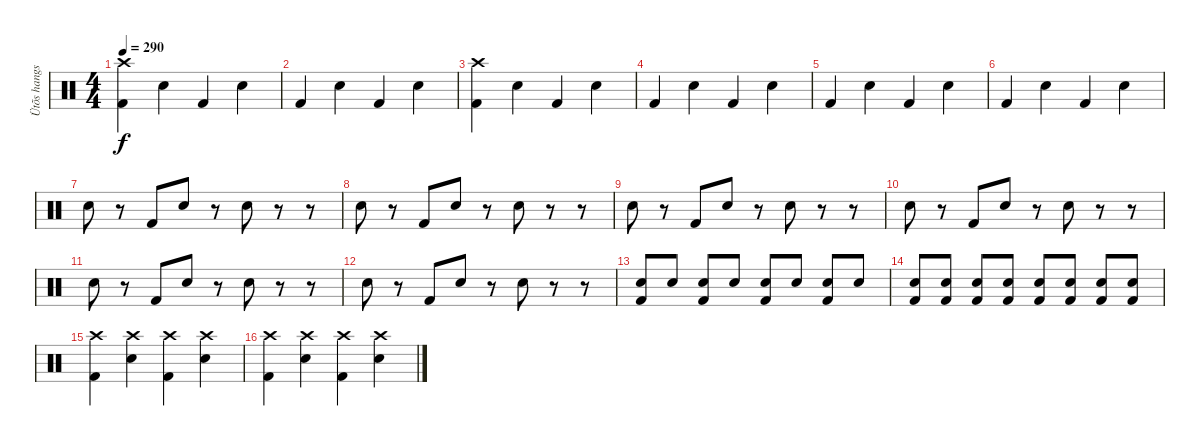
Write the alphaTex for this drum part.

\track ("Ütõs hangszer" "Ütõs hangs") {instrument percussion}
\staff {score}
\articulation defaults
\ts (4 4)
\tempo 290
\clef neutral
\ks c
("Crash high (hit)" "Kick (hit) 2").4{dy f} "Snare (hit) 2".4 "Kick (hit) 2".4 "Snare (hit) 2".4 |
"Kick (hit) 2".4 "Snare (hit) 2".4 "Kick (hit) 2".4 "Snare (hit) 2".4 |
("Crash high (hit)" "Kick (hit) 2").4 "Snare (hit) 2".4 "Kick (hit) 2".4 "Snare (hit) 2".4 |
"Kick (hit) 2".4 "Snare (hit) 2".4 "Kick (hit) 2".4 "Snare (hit) 2".4 |
"Kick (hit) 2".4 "Snare (hit) 2".4 "Kick (hit) 2".4 "Snare (hit) 2".4 |
"Kick (hit) 2".4 "Snare (hit) 2".4 "Kick (hit) 2".4 "Snare (hit) 2".4 |
"Snare (hit) 2".8 r.8 "Kick (hit) 2".8 "Snare (hit) 2".8 r.8 "Snare (hit) 2".8 r.8 r.8 |
"Snare (hit) 2".8 r.8 "Kick (hit) 2".8 "Snare (hit) 2".8 r.8 "Snare (hit) 2".8 r.8 r.8 |
"Snare (hit) 2".8 r.8 "Kick (hit) 2".8 "Snare (hit) 2".8 r.8 "Snare (hit) 2".8 r.8 r.8 |
"Snare (hit) 2".8 r.8 "Kick (hit) 2".8 "Snare (hit) 2".8 r.8 "Snare (hit) 2".8 r.8 r.8 |
"Snare (hit) 2".8 r.8 "Kick (hit) 2".8 "Snare (hit) 2".8 r.8 "Snare (hit) 2".8 r.8 r.8 |
"Snare (hit) 2".8 r.8 "Kick (hit) 2".8 "Snare (hit) 2".8 r.8 "Snare (hit) 2".8 r.8 r.8 |
("Snare (hit) 2" "Kick (hit) 2").8 "Snare (hit) 2".8 ("Snare (hit) 2" "Kick (hit) 2").8 "Snare (hit) 2".8 ("Snare (hit) 2" "Kick (hit) 2").8 "Snare (hit) 2".8 ("Snare (hit) 2" "Kick (hit) 2").8 "Snare (hit) 2".8 |
("Snare (hit) 2" "Kick (hit) 2").8 ("Snare (hit) 2" "Kick (hit) 2").8 ("Snare (hit) 2" "Kick (hit) 2").8 ("Snare (hit) 2" "Kick (hit) 2").8 ("Snare (hit) 2" "Kick (hit) 2").8 ("Snare (hit) 2" "Kick (hit) 2").8 ("Snare (hit) 2" "Kick (hit) 2").8 ("Snare (hit) 2" "Kick (hit) 2").8 |
("Crash high (hit)" "Kick (hit) 2").4 ("Crash high (hit)" "Snare (hit) 2").4 ("Crash high (hit)" "Kick (hit) 2").4 ("Crash high (hit)" "Snare (hit) 2").4 |
("Crash high (hit)" "Kick (hit) 2").4 ("Crash high (hit)" "Snare (hit) 2").4 ("Crash high (hit)" "Kick (hit) 2").4 ("Crash high (hit)" "Snare (hit) 2").4
